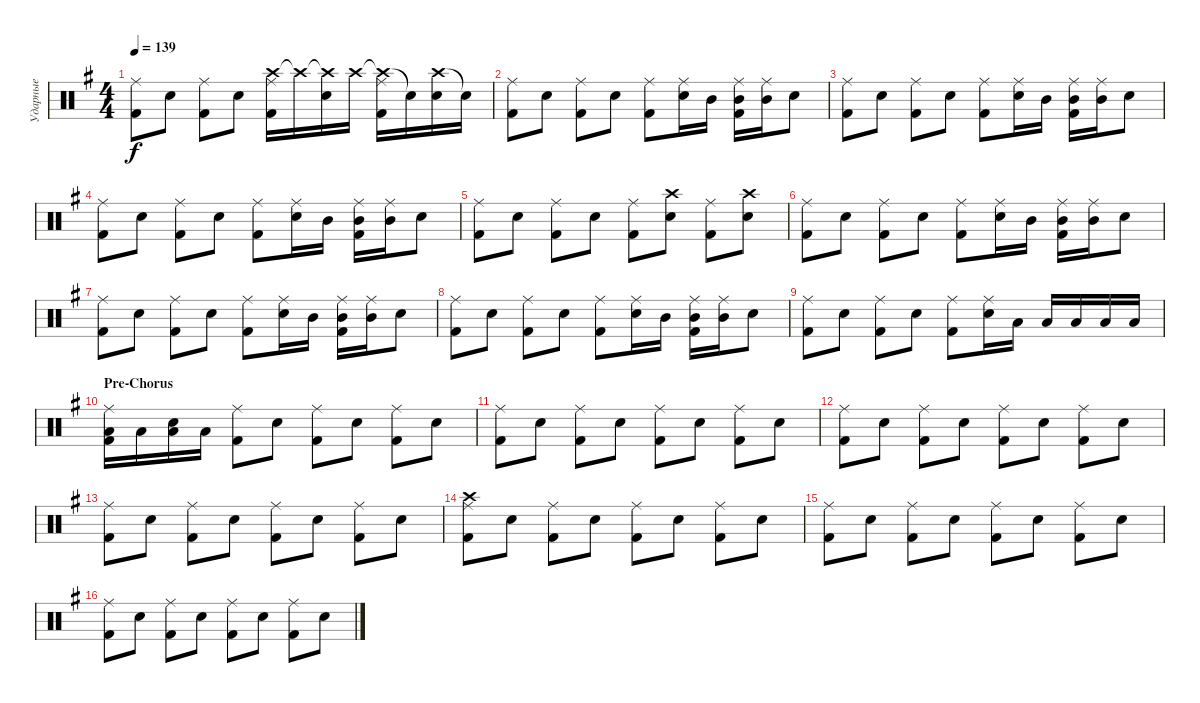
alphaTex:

\track ("Ударные" "Ударные") {instrument percussion}
\staff {score}
\articulation defaults
\ts (4 4)
\tempo 139
\clef neutral
\ks eminor
("Ride (middle)" "Kick (hit) 2").8{dy f} "Snare (hit) 2".8 ("Ride (middle)" "Kick (hit) 2").8 "Snare (hit) 2".8 ("Crash high (hit)" "Ride (middle)" "Kick (hit) 2").16 "Crash high (hit)"{t}.16 ("Crash high (hit)"{t} "Snare (hit) 2").16 "Crash high (hit)".16 ("Crash high (hit)"{t} "Ride (middle)" "Kick (hit) 2").16 "Snare (hit)"{t}.16 ("Crash high (hit)" "Snare (hit) 2").16 "Snare (hit)"{t}.16 |
("Ride (middle)" "Kick (hit) 2").8 "Snare (hit) 2".8 ("Ride (middle)" "Kick (hit) 2").8 "Snare (hit) 2".8 ("Ride (middle)" "Kick (hit) 2").8 ("Ride (middle)" "Snare (hit) 2").16 "Mid Tom (hit)".16 ("Mid Tom (hit)" "Ride (middle)" "Kick (hit) 2").16 ("Mid Tom (hit)" "Ride (middle)").16 "Snare (hit) 2".8 |
("Ride (middle)" "Kick (hit) 2").8 "Snare (hit) 2".8 ("Ride (middle)" "Kick (hit) 2").8 "Snare (hit) 2".8 ("Ride (middle)" "Kick (hit) 2").8 ("Ride (middle)" "Snare (hit) 2").16 "Mid Tom (hit)".16 ("Mid Tom (hit)" "Ride (middle)" "Kick (hit) 2").16 ("Mid Tom (hit)" "Ride (middle)").16 "Snare (hit) 2".8 |
("Ride (middle)" "Kick (hit) 2").8 "Snare (hit) 2".8 ("Ride (middle)" "Kick (hit) 2").8 "Snare (hit) 2".8 ("Ride (middle)" "Kick (hit) 2").8 ("Ride (middle)" "Snare (hit) 2").16 "Mid Tom (hit)".16 ("Mid Tom (hit)" "Ride (middle)" "Kick (hit) 2").16 ("Mid Tom (hit)" "Ride (middle)").16 "Snare (hit) 2".8 |
("Ride (middle)" "Kick (hit) 2").8 "Snare (hit) 2".8 ("Ride (middle)" "Kick (hit) 2").8 "Snare (hit) 2".8 ("Ride (middle)" "Kick (hit) 2").8 ("Crash high (hit)" "Snare (hit) 2").8 ("Ride (middle)" "Kick (hit) 2").8 ("Crash high (hit)" "Snare (hit) 2").8 |
("Ride (middle)" "Kick (hit) 2").8 "Snare (hit) 2".8 ("Ride (middle)" "Kick (hit) 2").8 "Snare (hit) 2".8 ("Ride (middle)" "Kick (hit) 2").8 ("Ride (middle)" "Snare (hit) 2").16 "Mid Tom (hit)".16 ("Mid Tom (hit)" "Ride (middle)" "Kick (hit) 2").16 ("Mid Tom (hit)" "Ride (middle)").16 "Snare (hit) 2".8 |
("Ride (middle)" "Kick (hit) 2").8 "Snare (hit) 2".8 ("Ride (middle)" "Kick (hit) 2").8 "Snare (hit) 2".8 ("Ride (middle)" "Kick (hit) 2").8 ("Ride (middle)" "Snare (hit) 2").16 "Mid Tom (hit)".16 ("Mid Tom (hit)" "Ride (middle)" "Kick (hit) 2").16 ("Mid Tom (hit)" "Ride (middle)").16 "Snare (hit) 2".8 |
("Ride (middle)" "Kick (hit) 2").8 "Snare (hit) 2".8 ("Ride (middle)" "Kick (hit) 2").8 "Snare (hit) 2".8 ("Ride (middle)" "Kick (hit) 2").8 ("Ride (middle)" "Snare (hit) 2").16 "Mid Tom (hit)".16 ("Mid Tom (hit)" "Ride (middle)" "Kick (hit) 2").16 ("Mid Tom (hit)" "Ride (middle)").16 "Snare (hit) 2".8 |
("Ride (middle)" "Kick (hit) 2").8 "Snare (hit) 2".8 ("Ride (middle)" "Kick (hit) 2").8 "Snare (hit) 2".8 ("Ride (middle)" "Kick (hit) 2").8 ("Ride (middle)" "Snare (hit) 2").16 "Low Tom (hit)".16 "Low Tom (hit)".16 "Low Tom (hit)".16 "Low Tom (hit)".16 "Low Tom (hit)".16 |
\section ("" "Pre-Chorus")
("Ride (middle)" "Low Tom (hit)" "Kick (hit) 2").16 "Low Tom (hit)".16 ("Snare (hit) 2" "Low Tom (hit)").16 "Low Tom (hit)".16 ("Ride (middle)" "Kick (hit) 2").8 "Snare (hit) 2".8 ("Ride (middle)" "Kick (hit) 2").8 "Snare (hit) 2".8 ("Ride (middle)" "Kick (hit) 2").8 "Snare (hit) 2".8 |
("Ride (middle)" "Kick (hit) 2").8 "Snare (hit) 2".8 ("Ride (middle)" "Kick (hit) 2").8 "Snare (hit) 2".8 ("Ride (middle)" "Kick (hit) 2").8 "Snare (hit) 2".8 ("Ride (middle)" "Kick (hit) 2").8 "Snare (hit) 2".8 |
("Ride (middle)" "Kick (hit) 2").8 "Snare (hit) 2".8 ("Ride (middle)" "Kick (hit) 2").8 "Snare (hit) 2".8 ("Ride (middle)" "Kick (hit) 2").8 "Snare (hit) 2".8 ("Ride (middle)" "Kick (hit) 2").8 "Snare (hit) 2".8 |
("Ride (middle)" "Kick (hit) 2").8 "Snare (hit) 2".8 ("Ride (middle)" "Kick (hit) 2").8 "Snare (hit) 2".8 ("Ride (middle)" "Kick (hit) 2").8 "Snare (hit) 2".8 ("Ride (middle)" "Kick (hit) 2").8 "Snare (hit) 2".8 |
("Ride (middle)" "Crash high (hit)" "Kick (hit) 2").8 "Snare (hit) 2".8 ("Ride (middle)" "Kick (hit) 2").8 "Snare (hit) 2".8 ("Ride (middle)" "Kick (hit) 2").8 "Snare (hit) 2".8 ("Ride (middle)" "Kick (hit) 2").8 "Snare (hit) 2".8 |
("Ride (middle)" "Kick (hit) 2").8 "Snare (hit) 2".8 ("Ride (middle)" "Kick (hit) 2").8 "Snare (hit) 2".8 ("Ride (middle)" "Kick (hit) 2").8 "Snare (hit) 2".8 ("Ride (middle)" "Kick (hit) 2").8 "Snare (hit) 2".8 |
("Ride (middle)" "Kick (hit) 2").8 "Snare (hit) 2".8 ("Ride (middle)" "Kick (hit) 2").8 "Snare (hit) 2".8 ("Ride (middle)" "Kick (hit) 2").8 "Snare (hit) 2".8 ("Ride (middle)" "Kick (hit) 2").8 "Snare (hit) 2".8
